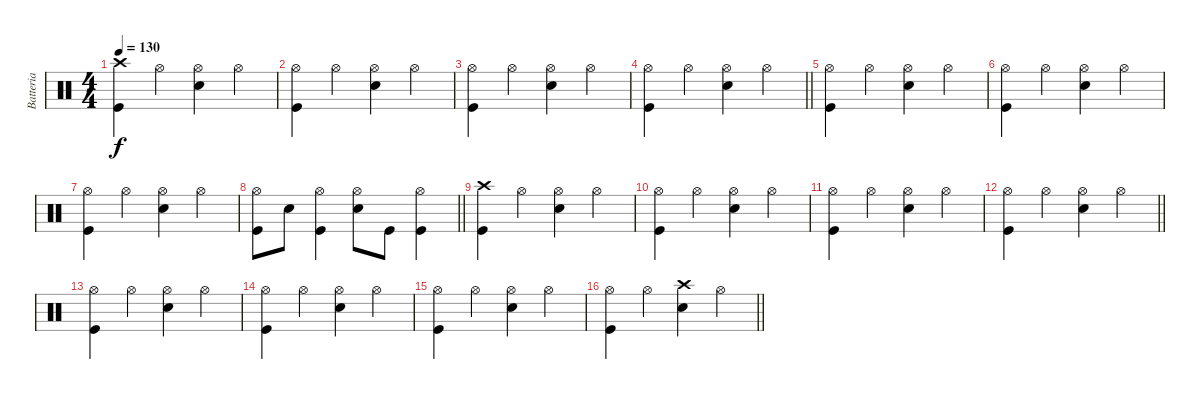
\track ("Batteria" "Batteria") {instrument percussion}
\staff {score}
\articulation defaults
\ts (4 4)
\tempo 130
\clef neutral
\ks c
("Kick (hit)" "Crash high (hit)").4{dy f} "Hi-Hat (open)".4 ("Snare (hit) 2" "Hi-Hat (open)").4 "Hi-Hat (open)".4 |
("Kick (hit)" "Hi-Hat (open)").4 "Hi-Hat (open)".4 ("Snare (hit) 2" "Hi-Hat (open)").4 "Hi-Hat (open)".4 |
("Kick (hit)" "Hi-Hat (open)").4 "Hi-Hat (open)".4 ("Snare (hit) 2" "Hi-Hat (open)").4 "Hi-Hat (open)".4 |
\barLineRight lightlight
("Kick (hit)" "Hi-Hat (open)").4 "Hi-Hat (open)".4 ("Snare (hit) 2" "Hi-Hat (open)").4 "Hi-Hat (open)".4 |
("Kick (hit)" "Hi-Hat (open)").4 "Hi-Hat (open)".4 ("Snare (hit) 2" "Hi-Hat (open)").4 "Hi-Hat (open)".4 |
("Kick (hit)" "Hi-Hat (open)").4 "Hi-Hat (open)".4 ("Snare (hit) 2" "Hi-Hat (open)").4 "Hi-Hat (open)".4 |
("Kick (hit)" "Hi-Hat (open)").4 "Hi-Hat (open)".4 ("Snare (hit) 2" "Hi-Hat (open)").4 "Hi-Hat (open)".4 |
\barLineRight lightlight
("Kick (hit)" "Hi-Hat (open)").8 "Snare (hit) 2".8 ("Kick (hit)" "Hi-Hat (open)").4 ("Snare (hit) 2" "Hi-Hat (open)").8 "Kick (hit)".8 ("Kick (hit)" "Hi-Hat (open)").4 |
("Kick (hit)" "Crash high (hit)").4 "Hi-Hat (open)".4 ("Snare (hit) 2" "Hi-Hat (open)").4 "Hi-Hat (open)".4 |
("Kick (hit)" "Hi-Hat (open)").4 "Hi-Hat (open)".4 ("Snare (hit) 2" "Hi-Hat (open)").4 "Hi-Hat (open)".4 |
("Kick (hit)" "Hi-Hat (open)").4 "Hi-Hat (open)".4 ("Snare (hit) 2" "Hi-Hat (open)").4 "Hi-Hat (open)".4 |
\barLineRight lightlight
("Kick (hit)" "Hi-Hat (open)").4 "Hi-Hat (open)".4 ("Snare (hit) 2" "Hi-Hat (open)").4 "Hi-Hat (open)".4 |
("Kick (hit)" "Hi-Hat (open)").4 "Hi-Hat (open)".4 ("Snare (hit) 2" "Hi-Hat (open)").4 "Hi-Hat (open)".4 |
("Kick (hit)" "Hi-Hat (open)").4 "Hi-Hat (open)".4 ("Snare (hit) 2" "Hi-Hat (open)").4 "Hi-Hat (open)".4 |
("Kick (hit)" "Hi-Hat (open)").4 "Hi-Hat (open)".4 ("Snare (hit) 2" "Hi-Hat (open)").4 "Hi-Hat (open)".4 |
\barLineRight lightlight
("Kick (hit)" "Hi-Hat (open)").4 "Hi-Hat (open)".4 ("Snare (hit) 2" "Crash high (hit)").4 "Hi-Hat (open)".4
